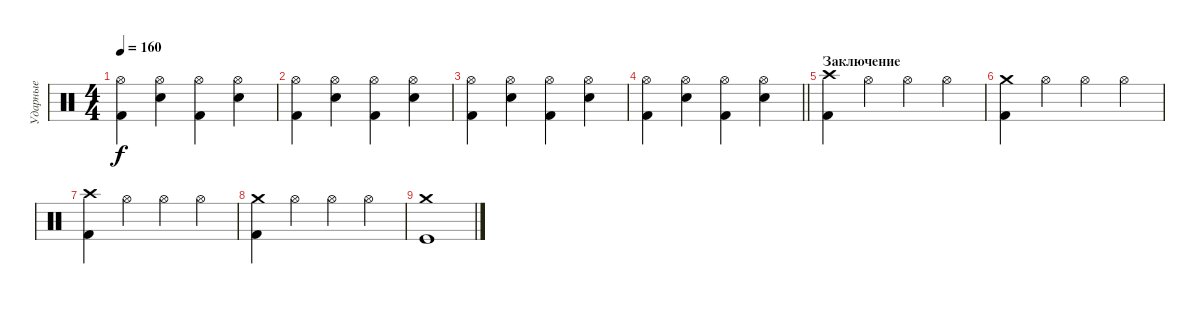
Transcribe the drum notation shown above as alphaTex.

\track ("Ударные" "Ударные") {instrument percussion}
\staff {score}
\articulation defaults
\ts (4 4)
\tempo 160
\clef neutral
\ks c
("Hi-Hat (open)" "Kick (hit) 2").4{dy f} ("Hi-Hat (open)" "Electric Snare (hit)").4 ("Hi-Hat (open)" "Kick (hit) 2").4 ("Hi-Hat (open)" "Electric Snare (hit)").4 |
("Hi-Hat (open)" "Kick (hit) 2").4 ("Hi-Hat (open)" "Electric Snare (hit)").4 ("Hi-Hat (open)" "Kick (hit) 2").4 ("Hi-Hat (open)" "Electric Snare (hit)").4 |
("Hi-Hat (open)" "Kick (hit) 2").4 ("Hi-Hat (open)" "Electric Snare (hit)").4 ("Hi-Hat (open)" "Kick (hit) 2").4 ("Hi-Hat (open)" "Electric Snare (hit)").4 |
\barLineRight lightlight
("Hi-Hat (open)" "Kick (hit) 2").4 ("Hi-Hat (open)" "Electric Snare (hit)").4 ("Hi-Hat (open)" "Kick (hit) 2").4 ("Hi-Hat (open)" "Electric Snare (hit)").4 |
\section ("" "Заключение")
("Crash high (hit)" "Kick (hit) 2").4 "Hi-Hat (open)".4 "Hi-Hat (open)".4 "Hi-Hat (open)".4 |
("Crash medium (hit)" "Kick (hit) 2").4 "Hi-Hat (open)".4 "Hi-Hat (open)".4 "Hi-Hat (open)".4 |
("Crash high (hit)" "Kick (hit) 2").4 "Hi-Hat (open)".4 "Hi-Hat (open)".4 "Hi-Hat (open)".4 |
("Crash medium (hit)" "Kick (hit) 2").4 "Hi-Hat (open)".4 "Hi-Hat (open)".4 "Hi-Hat (open)".4 |
("Crash medium (hit)" "Kick (hit)").1
